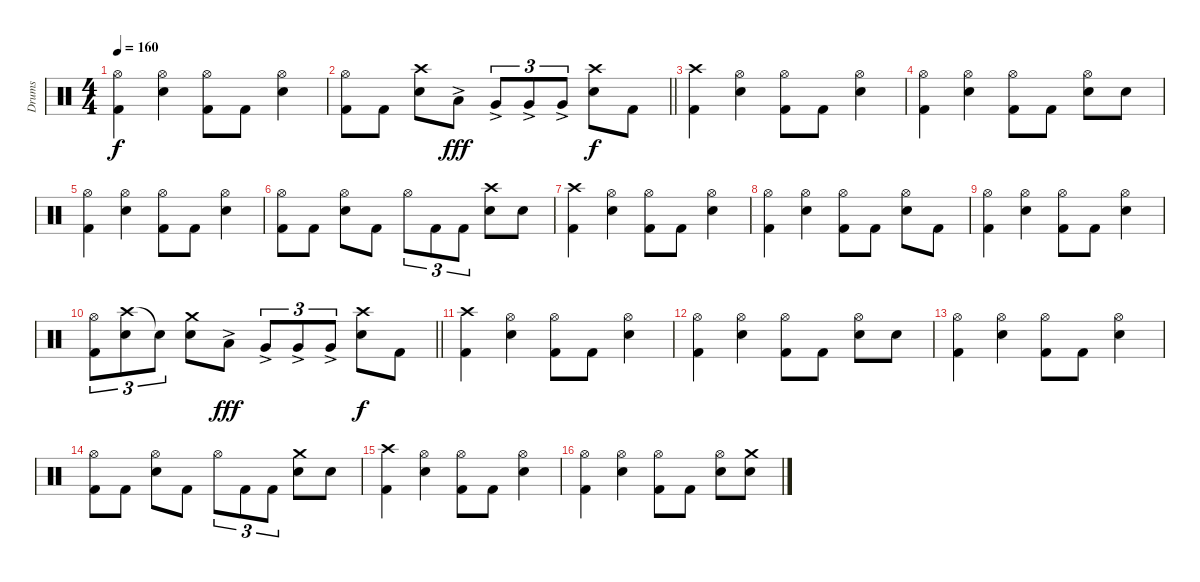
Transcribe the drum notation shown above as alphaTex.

\track ("Drums" "Drums") {instrument percussion}
\staff {score}
\articulation defaults
\ts (4 4)
\tempo 160
\clef neutral
\ks c
("Hi-Hat (open)" "Kick (hit) 2").4{dy f} ("Hi-Hat (open)" "Snare (hit) 2").4 ("Hi-Hat (open)" "Kick (hit) 2").8 "Kick (hit) 2".8 ("Hi-Hat (open)" "Snare (hit) 2").4 |
\barLineRight lightlight
("Hi-Hat (open)" "Kick (hit) 2").8 "Kick (hit) 2".8 ("Crash high (hit)" "Snare (hit) 2").8 "Low Tom (hit)"{ac}.8{dy fff} "Very Low Tom (hit)"{ac}.8{tu (3 2)} "Very Low Tom (hit)"{ac}.8{tu (3 2)} "Very Low Tom (hit)"{ac}.8{tu (3 2)} ("Crash high (hit)" "Snare (hit) 2").8{dy f} "Kick (hit) 2".8 |
("Crash high (hit)" "Kick (hit) 2").4 ("Hi-Hat (open)" "Snare (hit) 2").4 ("Hi-Hat (open)" "Kick (hit) 2").8 "Kick (hit) 2".8 ("Hi-Hat (open)" "Snare (hit) 2").4 |
("Hi-Hat (open)" "Kick (hit) 2").4 ("Hi-Hat (open)" "Snare (hit) 2").4 ("Hi-Hat (open)" "Kick (hit) 2").8 "Kick (hit) 2".8 ("Hi-Hat (open)" "Snare (hit) 2").8 "Snare (hit) 2".8 |
("Hi-Hat (open)" "Kick (hit) 2").4 ("Hi-Hat (open)" "Snare (hit) 2").4 ("Hi-Hat (open)" "Kick (hit) 2").8 "Kick (hit) 2".8 ("Hi-Hat (open)" "Snare (hit) 2").4 |
("Hi-Hat (open)" "Kick (hit) 2").8 "Kick (hit) 2".8 ("Hi-Hat (open)" "Snare (hit) 2").8 "Kick (hit) 2".8 "Hi-Hat (open)".8{tu (3 2)} "Kick (hit) 2".8{tu (3 2)} "Kick (hit) 2".8{tu (3 2)} ("Crash high (hit)" "Snare (hit) 2").8 "Snare (hit) 2".8 |
("Crash high (hit)" "Kick (hit) 2").4 ("Hi-Hat (open)" "Snare (hit) 2").4 ("Hi-Hat (open)" "Kick (hit) 2").8 "Kick (hit) 2".8 ("Hi-Hat (open)" "Snare (hit) 2").4 |
("Hi-Hat (open)" "Kick (hit) 2").4 ("Hi-Hat (open)" "Snare (hit) 2").4 ("Hi-Hat (open)" "Kick (hit) 2").8 "Kick (hit) 2".8 ("Hi-Hat (open)" "Snare (hit) 2").8 "Kick (hit) 2".8 |
("Hi-Hat (open)" "Kick (hit) 2").4 ("Hi-Hat (open)" "Snare (hit) 2").4 ("Hi-Hat (open)" "Kick (hit) 2").8 "Kick (hit) 2".8 ("Hi-Hat (open)" "Snare (hit) 2").4 |
\barLineRight lightlight
("Hi-Hat (open)" "Kick (hit) 2").8{tu (3 2)} ("Crash high (hit)" "Snare (hit) 2").8{tu (3 2)} "Snare (hit)"{t}.8{tu (3 2)} ("Crash medium (hit)" "Snare (hit) 2").8 "Low Tom (hit)"{ac}.8{dy fff} "Very Low Tom (hit)"{ac}.8{tu (3 2)} "Very Low Tom (hit)"{ac}.8{tu (3 2)} "Very Low Tom (hit)"{ac}.8{tu (3 2)} ("Crash high (hit)" "Snare (hit) 2").8{dy f} "Kick (hit) 2".8 |
("Crash high (hit)" "Kick (hit) 2").4 ("Hi-Hat (open)" "Snare (hit) 2").4 ("Hi-Hat (open)" "Kick (hit) 2").8 "Kick (hit) 2".8 ("Hi-Hat (open)" "Snare (hit) 2").4 |
("Hi-Hat (open)" "Kick (hit) 2").4 ("Hi-Hat (open)" "Snare (hit) 2").4 ("Hi-Hat (open)" "Kick (hit) 2").8 "Kick (hit) 2".8 ("Hi-Hat (open)" "Snare (hit) 2").8 "Snare (hit) 2".8 |
("Hi-Hat (open)" "Kick (hit) 2").4 ("Hi-Hat (open)" "Snare (hit) 2").4 ("Hi-Hat (open)" "Kick (hit) 2").8 "Kick (hit) 2".8 ("Hi-Hat (open)" "Snare (hit) 2").4 |
("Hi-Hat (open)" "Kick (hit) 2").8 "Kick (hit) 2".8 ("Hi-Hat (open)" "Snare (hit) 2").8 "Kick (hit) 2".8 "Hi-Hat (open)".8{tu (3 2)} "Kick (hit) 2".8{tu (3 2)} "Kick (hit) 2".8{tu (3 2)} ("Crash medium (hit)" "Snare (hit) 2").8 "Snare (hit) 2".8 |
("Crash high (hit)" "Kick (hit) 2").4 ("Hi-Hat (open)" "Snare (hit) 2").4 ("Hi-Hat (open)" "Kick (hit) 2").8 "Kick (hit) 2".8 ("Hi-Hat (open)" "Snare (hit) 2").4 |
("Hi-Hat (open)" "Kick (hit) 2").4 ("Hi-Hat (open)" "Snare (hit) 2").4 ("Hi-Hat (open)" "Kick (hit) 2").8 "Kick (hit) 2".8 ("Hi-Hat (open)" "Snare (hit) 2").8 ("Crash medium (hit)" "Snare (hit) 2").8
